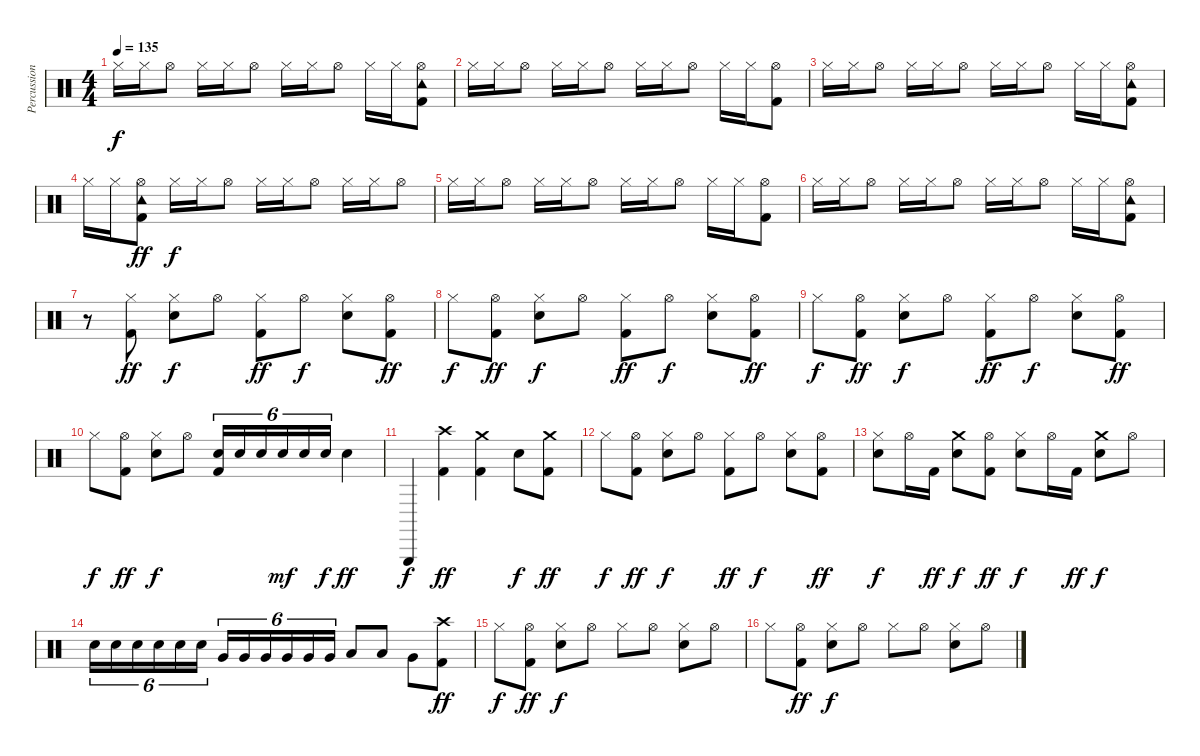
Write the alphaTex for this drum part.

\track ("Percussion" "Percussion") {instrument percussion}
\staff {score}
\articulation defaults
\ts (4 4)
\tempo 135
\clef neutral
\ks c "Hi-Hat (closed)".16{dy f} "Hi-Hat (closed)".16 "Hi-Hat (open)".8 "Hi-Hat (closed)".16 "Hi-Hat (closed)".16 "Hi-Hat (open)".8 "Hi-Hat (closed)".16 "Hi-Hat (closed)".16 "Hi-Hat (open)".8 "Hi-Hat (closed)".16 "Hi-Hat (closed)".16
("Kick (hit) 2" "Hi-Hat (open)" "Tambourine (hit)").8 |
"Hi-Hat (closed)".16 "Hi-Hat (closed)".16 "Hi-Hat (open)".8 "Hi-Hat (closed)".16 "Hi-Hat (closed)".16 "Hi-Hat (open)".8 "Hi-Hat (closed)".16 "Hi-Hat (closed)".16 "Hi-Hat (open)".8 "Hi-Hat (closed)".16 "Hi-Hat (closed)".16 ("Kick (hit) 2" "Hi-Hat (open)").8 |
"Hi-Hat (closed)".16 "Hi-Hat (closed)".16 "Hi-Hat (open)".8 "Hi-Hat (closed)".16 "Hi-Hat (closed)".16 "Hi-Hat (open)".8 "Hi-Hat (closed)".16 "Hi-Hat (closed)".16 "Hi-Hat (open)".8 "Hi-Hat (closed)".16 "Hi-Hat (closed)".16 ("Kick (hit) 2" "Hi-Hat (open)" "Tambourine (hit)").8 |
"Hi-Hat (closed)".16 "Hi-Hat (closed)".16 ("Kick (hit) 2" "Hi-Hat (open)" "Tambourine (hit)").8{dy ff} "Hi-Hat (closed)".16{dy f} "Hi-Hat (closed)".16 "Hi-Hat (open)".8 "Hi-Hat (closed)".16 "Hi-Hat (closed)".16 "Hi-Hat (open)".8 "Hi-Hat (closed)".16 "Hi-Hat (closed)".16 "Hi-Hat (open)".8 |
"Hi-Hat (closed)".16 "Hi-Hat (closed)".16 "Hi-Hat (open)".8 "Hi-Hat (closed)".16 "Hi-Hat (closed)".16 "Hi-Hat (open)".8 "Hi-Hat (closed)".16 "Hi-Hat (closed)".16 "Hi-Hat (open)".8 "Hi-Hat (closed)".16 "Hi-Hat (closed)".16 ("Kick (hit) 2" "Hi-Hat (open)").8 |
"Hi-Hat (closed)".16 "Hi-Hat (closed)".16 "Hi-Hat (open)".8 "Hi-Hat (closed)".16 "Hi-Hat (closed)".16 "Hi-Hat (open)".8 "Hi-Hat (closed)".16 "Hi-Hat (closed)".16 "Hi-Hat (open)".8 "Hi-Hat (closed)".16 "Hi-Hat (closed)".16 ("Kick (hit) 2" "Hi-Hat (open)" "Tambourine (hit)").8 |
r.8 ("Kick (hit) 2" "Hi-Hat (closed)").8{dy ff} ("Snare (hit) 2" "Hi-Hat (closed)").8{dy f} "Hi-Hat (open)".8 ("Kick (hit) 2" "Hi-Hat (closed)").8{dy ff} "Hi-Hat (open)".8{dy f} ("Snare (hit) 2" "Hi-Hat (closed)").8 ("Kick (hit) 2" "Hi-Hat (open)").8{dy ff} |
"Hi-Hat (closed)".8{dy f} ("Kick (hit) 2" "Hi-Hat (open)").8{dy ff} ("Snare (hit) 2" "Hi-Hat (closed)").8{dy f} "Hi-Hat (open)".8 ("Kick (hit) 2" "Hi-Hat (closed)").8{dy ff} "Hi-Hat (open)".8{dy f} ("Snare (hit) 2" "Hi-Hat (closed)").8 ("Kick (hit) 2" "Hi-Hat (open)").8{dy ff} |
"Hi-Hat (closed)".8{dy f} ("Kick (hit) 2" "Hi-Hat (open)").8{dy ff} ("Snare (hit) 2" "Hi-Hat (closed)").8{dy f} "Hi-Hat (open)".8 ("Kick (hit) 2" "Hi-Hat (closed)").8{dy ff} "Hi-Hat (open)".8{dy f} ("Snare (hit) 2" "Hi-Hat (closed)").8 ("Kick (hit) 2" "Hi-Hat (open)").8{dy ff} |
"Hi-Hat (closed)".8{dy f} ("Kick (hit) 2" "Hi-Hat (open)").8{dy ff} ("Snare (hit) 2" "Hi-Hat (closed)").8{dy f} "Hi-Hat (open)".8 ("Kick (hit) 2" "Snare (hit) 2").16{tu (6 4)} "Snare (hit) 2".16{tu (6 4)} "Snare (hit) 2".16{tu (6 4)} "Snare (hit) 2".16{tu (6 4) dy mf} "Snare (hit) 2".16{tu (6 4)} "Snare (hit) 2".16{tu (6 4) dy f} "Snare (hit) 2".4{dy ff} |
"Triangle (hit)".4{dy f} ("Kick (hit) 2" "Crash high (hit)").4{dy ff} ("Kick (hit) 2" "Crash medium (hit)").4 "Snare (hit) 2".8{dy f} ("Kick (hit) 2" "Crash medium (hit)").8{dy ff} |
"Hi-Hat (closed)".8{dy f} ("Kick (hit) 2" "Hi-Hat (open)").8{dy ff} ("Snare (hit) 2" "Hi-Hat (closed)").8{dy f} "Hi-Hat (open)".8 ("Kick (hit) 2" "Hi-Hat (closed)").8{dy ff} "Hi-Hat (open)".8{dy f} ("Snare (hit) 2" "Hi-Hat (closed)").8 ("Kick (hit) 2" "Hi-Hat (open)").8{dy ff} |
("Snare (hit) 2" "Hi-Hat (closed)").8{dy f} "Hi-Hat (open)".16 "Kick (hit) 2".16{dy ff} ("Snare (hit) 2" "Crash medium (hit)").8{dy f} ("Kick (hit) 2" "Hi-Hat (open)").8{dy ff} ("Snare (hit) 2" "Hi-Hat (closed)").8{dy f} "Hi-Hat (open)".16 "Kick (hit) 2".16{dy ff} ("Snare (hit) 2" "Crash medium (hit)").8{dy f} "Hi-Hat (open)".8 |
"Snare (hit) 2".16{tu (6 4)} "Snare (hit) 2".16{tu (6 4)} "Snare (hit) 2".16{tu (6 4)} "Snare (hit) 2".16{tu (6 4)} "Snare (hit) 2".16{tu (6 4)} "Snare (hit) 2".16{tu (6 4)} "Very Low Tom (hit)".16{tu (6 4)} "Very Low Tom (hit)".16{tu (6 4)} "Very Low Tom (hit)".16{tu (6 4)} "Very Low Tom (hit)".16{tu (6 4)} "Very Low Tom (hit)".16{tu (6 4)} "Very Low Tom (hit)".16{tu (6 4)} "Low Tom (hit)".8 "Low Tom (hit)".8 "Very Low Tom (hit)".8 ("Kick (hit) 2" "Crash high (hit)").8{dy ff} |
"Hi-Hat (closed)".8{dy f} ("Kick (hit) 2" "Hi-Hat (open)").8{dy ff} ("Snare (hit) 2" "Hi-Hat (closed)").8{dy f} "Hi-Hat (open)".8 "Hi-Hat (closed)".8 "Hi-Hat (open)".8 ("Snare (hit) 2" "Hi-Hat (closed)").8 "Hi-Hat (open)".8 |
"Hi-Hat (closed)".8 ("Kick (hit) 2" "Hi-Hat (open)").8{dy ff} ("Snare (hit) 2" "Hi-Hat (closed)").8{dy f} "Hi-Hat (open)".8 "Hi-Hat (closed)".8 "Hi-Hat (open)".8 ("Snare (hit) 2" "Hi-Hat (closed)").8 "Hi-Hat (open)".8
